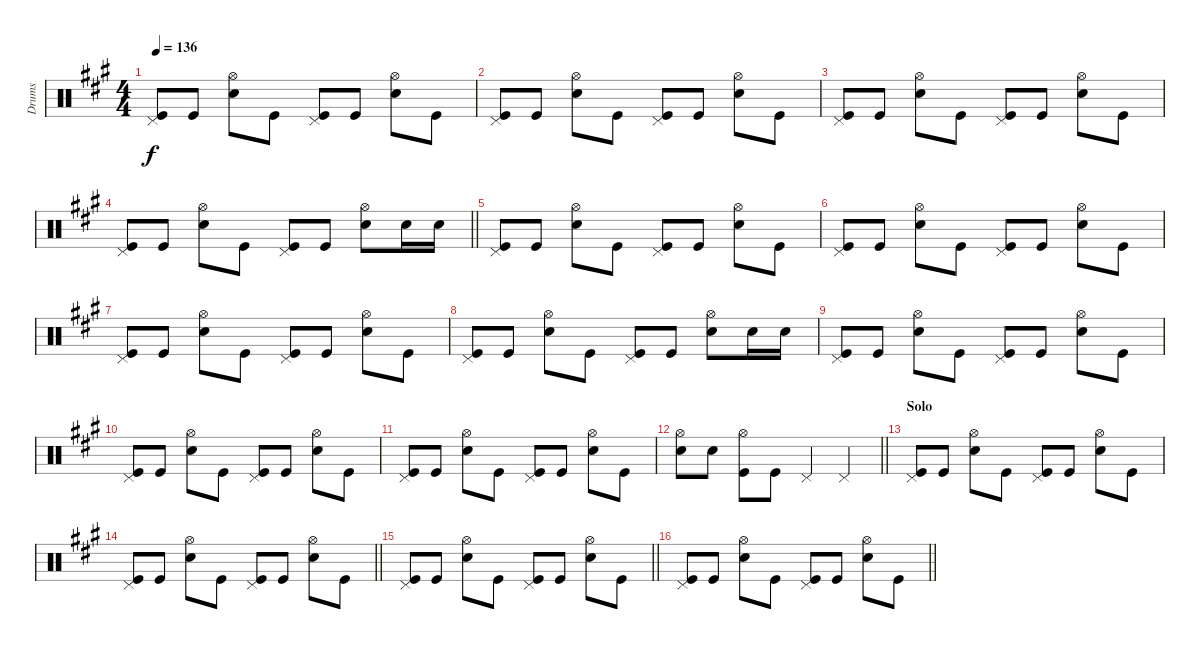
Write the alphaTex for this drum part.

\track ("Drums" "Drums") {instrument percussion}
\staff {score}
\articulation defaults
\ts (4 4)
\tempo 136
\clef neutral
\ks a
("Pedal Hi-Hat (hit)" "Kick (hit)").8{dy f} "Kick (hit)".8 ("Hi-Hat (open)" "Snare (hit) 2").8 "Kick (hit)".8 ("Pedal Hi-Hat (hit)" "Kick (hit)").8 "Kick (hit)".8 ("Hi-Hat (open)" "Snare (hit) 2").8 "Kick (hit)".8 |
("Pedal Hi-Hat (hit)" "Kick (hit)").8 "Kick (hit)".8 ("Hi-Hat (open)" "Snare (hit) 2").8 "Kick (hit)".8 ("Pedal Hi-Hat (hit)" "Kick (hit)").8 "Kick (hit)".8 ("Hi-Hat (open)" "Snare (hit) 2").8 "Kick (hit)".8 |
("Pedal Hi-Hat (hit)" "Kick (hit)").8 "Kick (hit)".8 ("Hi-Hat (open)" "Snare (hit) 2").8 "Kick (hit)".8 ("Pedal Hi-Hat (hit)" "Kick (hit)").8 "Kick (hit)".8 ("Hi-Hat (open)" "Snare (hit) 2").8 "Kick (hit)".8 |
\barLineRight lightlight
("Pedal Hi-Hat (hit)" "Kick (hit)").8 "Kick (hit)".8 ("Hi-Hat (open)" "Snare (hit) 2").8 "Kick (hit)".8 ("Pedal Hi-Hat (hit)" "Kick (hit)").8 "Kick (hit)".8 ("Hi-Hat (open)" "Snare (hit) 2").8 "Snare (hit) 2".16 "Snare (hit) 2".16 |
("Pedal Hi-Hat (hit)" "Kick (hit)").8 "Kick (hit)".8 ("Hi-Hat (open)" "Snare (hit) 2").8 "Kick (hit)".8 ("Pedal Hi-Hat (hit)" "Kick (hit)").8 "Kick (hit)".8 ("Hi-Hat (open)" "Snare (hit) 2").8 "Kick (hit)".8 |
("Pedal Hi-Hat (hit)" "Kick (hit)").8 "Kick (hit)".8 ("Hi-Hat (open)" "Snare (hit) 2").8 "Kick (hit)".8 ("Pedal Hi-Hat (hit)" "Kick (hit)").8 "Kick (hit)".8 ("Hi-Hat (open)" "Snare (hit) 2").8 "Kick (hit)".8 |
("Pedal Hi-Hat (hit)" "Kick (hit)").8 "Kick (hit)".8 ("Hi-Hat (open)" "Snare (hit) 2").8 "Kick (hit)".8 ("Pedal Hi-Hat (hit)" "Kick (hit)").8 "Kick (hit)".8 ("Hi-Hat (open)" "Snare (hit) 2").8 "Kick (hit)".8 |
("Pedal Hi-Hat (hit)" "Kick (hit)").8 "Kick (hit)".8 ("Hi-Hat (open)" "Snare (hit) 2").8 "Kick (hit)".8 ("Pedal Hi-Hat (hit)" "Kick (hit)").8 "Kick (hit)".8 ("Hi-Hat (open)" "Snare (hit) 2").8 "Snare (hit) 2".16 "Snare (hit) 2".16 |
("Pedal Hi-Hat (hit)" "Kick (hit)").8 "Kick (hit)".8 ("Hi-Hat (open)" "Snare (hit) 2").8 "Kick (hit)".8 ("Pedal Hi-Hat (hit)" "Kick (hit)").8 "Kick (hit)".8 ("Hi-Hat (open)" "Snare (hit) 2").8 "Kick (hit)".8 |
("Pedal Hi-Hat (hit)" "Kick (hit)").8 "Kick (hit)".8 ("Hi-Hat (open)" "Snare (hit) 2").8 "Kick (hit)".8 ("Pedal Hi-Hat (hit)" "Kick (hit)").8 "Kick (hit)".8 ("Hi-Hat (open)" "Snare (hit) 2").8 "Kick (hit)".8 |
("Pedal Hi-Hat (hit)" "Kick (hit)").8 "Kick (hit)".8 ("Hi-Hat (open)" "Snare (hit) 2").8 "Kick (hit)".8 ("Pedal Hi-Hat (hit)" "Kick (hit)").8 "Kick (hit)".8 ("Hi-Hat (open)" "Snare (hit) 2").8 "Kick (hit)".8 |
\barLineRight lightlight
("Hi-Hat (open)" "Snare (hit) 2").8 "Snare (hit) 2".8 ("Hi-Hat (open)" "Kick (hit)").8 "Kick (hit)".8 "Pedal Hi-Hat (hit)".4 "Pedal Hi-Hat (hit)".4 |
\section ("" "Solo")
("Pedal Hi-Hat (hit)" "Kick (hit)").8 "Kick (hit)".8 ("Hi-Hat (open)" "Snare (hit) 2").8 "Kick (hit)".8 ("Pedal Hi-Hat (hit)" "Kick (hit)").8 "Kick (hit)".8 ("Hi-Hat (open)" "Snare (hit) 2").8 "Kick (hit)".8 |
\barLineRight lightlight
("Pedal Hi-Hat (hit)" "Kick (hit)").8 "Kick (hit)".8 ("Hi-Hat (open)" "Snare (hit) 2").8 "Kick (hit)".8 ("Pedal Hi-Hat (hit)" "Kick (hit)").8 "Kick (hit)".8 ("Hi-Hat (open)" "Snare (hit) 2").8 "Kick (hit)".8 |
\barLineRight lightlight
("Pedal Hi-Hat (hit)" "Kick (hit)").8 "Kick (hit)".8 ("Hi-Hat (open)" "Snare (hit) 2").8 "Kick (hit)".8 ("Pedal Hi-Hat (hit)" "Kick (hit)").8 "Kick (hit)".8 ("Hi-Hat (open)" "Snare (hit) 2").8 "Kick (hit)".8 |
\barLineRight lightlight
("Pedal Hi-Hat (hit)" "Kick (hit)").8 "Kick (hit)".8 ("Hi-Hat (open)" "Snare (hit) 2").8 "Kick (hit)".8 ("Pedal Hi-Hat (hit)" "Kick (hit)").8 "Kick (hit)".8 ("Hi-Hat (open)" "Snare (hit) 2").8 "Kick (hit)".8
